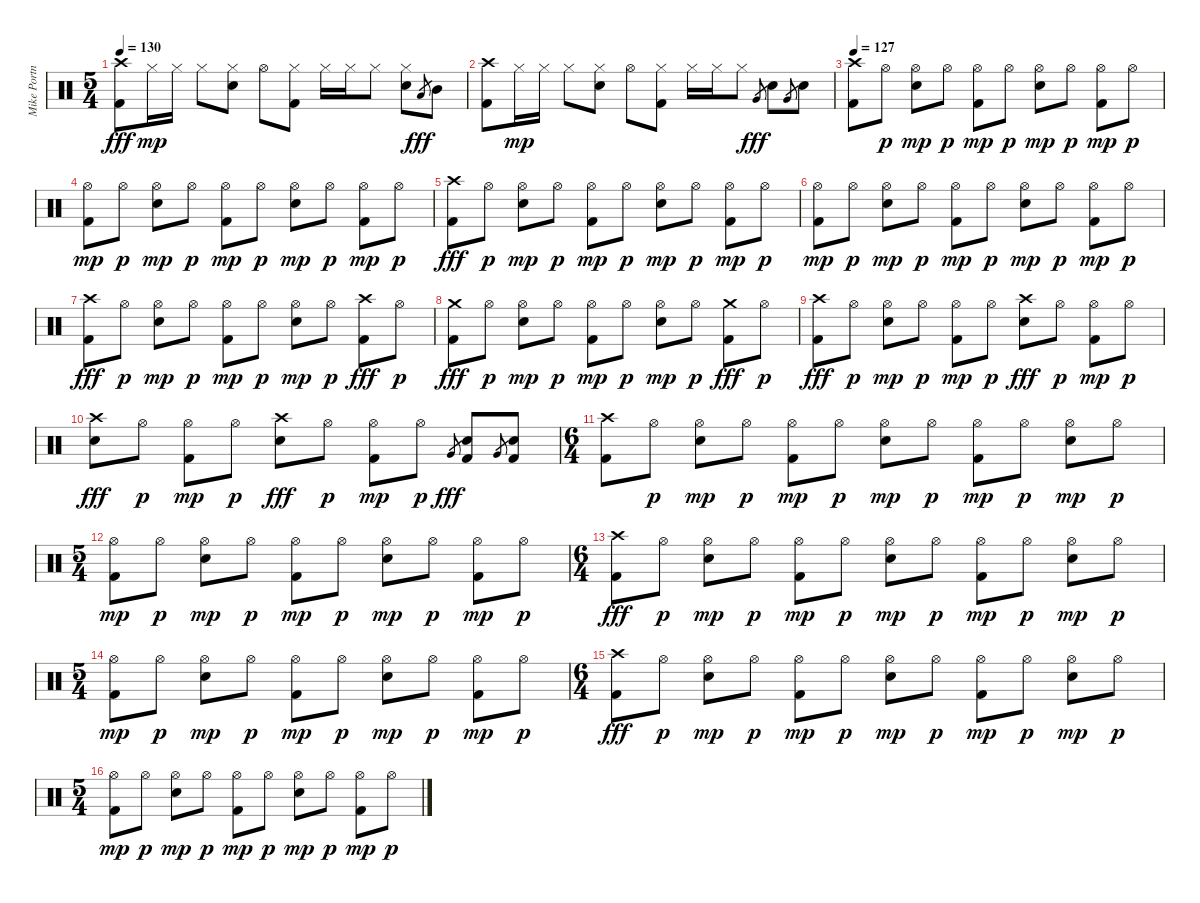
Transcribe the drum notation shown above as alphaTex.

\track ("Mike Portnoy" "Mike Portn") {instrument percussion}
\staff {score}
\articulation defaults
\ts (5 4)
\tempo 130
\clef neutral
\ks c
("Kick (hit) 2" "Crash high (hit)").8{dy fff} "Hi-Hat (closed)".16{dy mp} "Hi-Hat (closed)".16 "Hi-Hat (closed)".8 ("Electric Snare (hit)" "Hi-Hat (closed)").8 "Hi-Hat (open)".8 ("Kick (hit) 2" "Hi-Hat (closed)").8 "Hi-Hat (closed)".16 "Hi-Hat (closed)".16 "Hi-Hat (closed)".8 ("Electric Snare (hit)" "Hi-Hat (closed)").8 "Low Tom (hit)".8{gr dy fff} "Mid Tom (hit)".8 |
("Kick (hit) 2" "Crash high (hit)").8 "Hi-Hat (closed)".16{dy mp} "Hi-Hat (closed)".16 "Hi-Hat (closed)".8 ("Electric Snare (hit)" "Hi-Hat (closed)").8 "Hi-Hat (open)".8 ("Kick (hit) 2" "Hi-Hat (closed)").8 "Hi-Hat (closed)".16 "Hi-Hat (closed)".16 "Hi-Hat (closed)".8 "Very Low Tom (hit)".8{gr dy fff} "Electric Snare (hit)".8 "Very Low Tom (hit)".8{gr} "Electric Snare (hit)".8 |
\tempo 127
("Kick (hit) 2" "Crash high (hit)").8 "Hi-Hat (open)".8{dy p} ("Electric Snare (hit)" "Hi-Hat (open)").8{dy mp} "Hi-Hat (open)".8{dy p} ("Kick (hit) 2" "Hi-Hat (open)").8{dy mp} "Hi-Hat (open)".8{dy p} ("Electric Snare (hit)" "Hi-Hat (open)").8{dy mp} "Hi-Hat (open)".8{dy p} ("Kick (hit) 2" "Hi-Hat (open)").8{dy mp} "Hi-Hat (open)".8{dy p} |
("Kick (hit) 2" "Hi-Hat (open)").8{dy mp} "Hi-Hat (open)".8{dy p} ("Electric Snare (hit)" "Hi-Hat (open)").8{dy mp} "Hi-Hat (open)".8{dy p} ("Kick (hit) 2" "Hi-Hat (open)").8{dy mp} "Hi-Hat (open)".8{dy p} ("Electric Snare (hit)" "Hi-Hat (open)").8{dy mp} "Hi-Hat (open)".8{dy p} ("Kick (hit) 2" "Hi-Hat (open)").8{dy mp} "Hi-Hat (open)".8{dy p} |
("Kick (hit) 2" "Crash high (hit)").8{dy fff} "Hi-Hat (open)".8{dy p} ("Electric Snare (hit)" "Hi-Hat (open)").8{dy mp} "Hi-Hat (open)".8{dy p} ("Kick (hit) 2" "Hi-Hat (open)").8{dy mp} "Hi-Hat (open)".8{dy p} ("Electric Snare (hit)" "Hi-Hat (open)").8{dy mp} "Hi-Hat (open)".8{dy p} ("Kick (hit) 2" "Hi-Hat (open)").8{dy mp} "Hi-Hat (open)".8{dy p} |
("Kick (hit) 2" "Hi-Hat (open)").8{dy mp} "Hi-Hat (open)".8{dy p} ("Electric Snare (hit)" "Hi-Hat (open)").8{dy mp} "Hi-Hat (open)".8{dy p} ("Kick (hit) 2" "Hi-Hat (open)").8{dy mp} "Hi-Hat (open)".8{dy p} ("Electric Snare (hit)" "Hi-Hat (open)").8{dy mp} "Hi-Hat (open)".8{dy p} ("Kick (hit) 2" "Hi-Hat (open)").8{dy mp} "Hi-Hat (open)".8{dy p} |
("Kick (hit) 2" "Crash high (hit)").8{dy fff} "Hi-Hat (open)".8{dy p} ("Electric Snare (hit)" "Hi-Hat (open)").8{dy mp} "Hi-Hat (open)".8{dy p} ("Kick (hit) 2" "Hi-Hat (open)").8{dy mp} "Hi-Hat (open)".8{dy p} ("Electric Snare (hit)" "Hi-Hat (open)").8{dy mp} "Hi-Hat (open)".8{dy p} ("Kick (hit) 2" "Crash high (hit)").8{dy fff} "Hi-Hat (open)".8{dy p} |
("Kick (hit) 2" "Crash medium (hit)").8{dy fff} "Hi-Hat (open)".8{dy p} ("Electric Snare (hit)" "Hi-Hat (open)").8{dy mp} "Hi-Hat (open)".8{dy p} ("Kick (hit) 2" "Hi-Hat (open)").8{dy mp} "Hi-Hat (open)".8{dy p} ("Electric Snare (hit)" "Hi-Hat (open)").8{dy mp} "Hi-Hat (open)".8{dy p} ("Kick (hit) 2" "Crash medium (hit)").8{dy fff} "Hi-Hat (open)".8{dy p} |
("Kick (hit) 2" "Crash high (hit)").8{dy fff} "Hi-Hat (open)".8{dy p} ("Electric Snare (hit)" "Hi-Hat (open)").8{dy mp} "Hi-Hat (open)".8{dy p} ("Kick (hit) 2" "Hi-Hat (open)").8{dy mp} "Hi-Hat (open)".8{dy p} ("Electric Snare (hit)" "Crash high (hit)").8{dy fff} "Hi-Hat (open)".8{dy p} ("Kick (hit) 2" "Hi-Hat (open)").8{dy mp} "Hi-Hat (open)".8{dy p} |
("Electric Snare (hit)" "Crash high (hit)").8{dy fff} "Hi-Hat (open)".8{dy p} ("Kick (hit) 2" "Hi-Hat (open)").8{dy mp} "Hi-Hat (open)".8{dy p} ("Electric Snare (hit)" "Crash high (hit)").8{dy fff} "Hi-Hat (open)".8{dy p} ("Kick (hit) 2" "Hi-Hat (open)").8{dy mp} "Hi-Hat (open)".8{dy p} "Very Low Tom (hit)".8{gr dy fff} ("Electric Snare (hit)" "Kick (hit) 2").8 "Very Low Tom (hit)".8{gr} ("Electric Snare (hit)" "Kick (hit) 2").8 |
\ts (6 4)
("Kick (hit) 2" "Crash high (hit)").8 "Hi-Hat (open)".8{dy p} ("Electric Snare (hit)" "Hi-Hat (open)").8{dy mp} "Hi-Hat (open)".8{dy p} ("Kick (hit) 2" "Hi-Hat (open)").8{dy mp} "Hi-Hat (open)".8{dy p} ("Electric Snare (hit)" "Hi-Hat (open)").8{dy mp} "Hi-Hat (open)".8{dy p} ("Kick (hit) 2" "Hi-Hat (open)").8{dy mp} "Hi-Hat (open)".8{dy p} ("Electric Snare (hit)" "Hi-Hat (open)").8{dy mp} "Hi-Hat (open)".8{dy p} |
\ts (5 4)
("Kick (hit) 2" "Hi-Hat (open)").8{dy mp} "Hi-Hat (open)".8{dy p} ("Electric Snare (hit)" "Hi-Hat (open)").8{dy mp} "Hi-Hat (open)".8{dy p} ("Kick (hit) 2" "Hi-Hat (open)").8{dy mp} "Hi-Hat (open)".8{dy p} ("Electric Snare (hit)" "Hi-Hat (open)").8{dy mp} "Hi-Hat (open)".8{dy p} ("Kick (hit) 2" "Hi-Hat (open)").8{dy mp} "Hi-Hat (open)".8{dy p} |
\ts (6 4)
("Kick (hit) 2" "Crash high (hit)").8{dy fff} "Hi-Hat (open)".8{dy p} ("Electric Snare (hit)" "Hi-Hat (open)").8{dy mp} "Hi-Hat (open)".8{dy p} ("Kick (hit) 2" "Hi-Hat (open)").8{dy mp} "Hi-Hat (open)".8{dy p} ("Electric Snare (hit)" "Hi-Hat (open)").8{dy mp} "Hi-Hat (open)".8{dy p} ("Kick (hit) 2" "Hi-Hat (open)").8{dy mp} "Hi-Hat (open)".8{dy p} ("Electric Snare (hit)" "Hi-Hat (open)").8{dy mp} "Hi-Hat (open)".8{dy p} |
\ts (5 4)
("Kick (hit) 2" "Hi-Hat (open)").8{dy mp} "Hi-Hat (open)".8{dy p} ("Electric Snare (hit)" "Hi-Hat (open)").8{dy mp} "Hi-Hat (open)".8{dy p} ("Kick (hit) 2" "Hi-Hat (open)").8{dy mp} "Hi-Hat (open)".8{dy p} ("Electric Snare (hit)" "Hi-Hat (open)").8{dy mp} "Hi-Hat (open)".8{dy p} ("Kick (hit) 2" "Hi-Hat (open)").8{dy mp} "Hi-Hat (open)".8{dy p} |
\ts (6 4)
("Kick (hit) 2" "Crash high (hit)").8{dy fff} "Hi-Hat (open)".8{dy p} ("Electric Snare (hit)" "Hi-Hat (open)").8{dy mp} "Hi-Hat (open)".8{dy p} ("Kick (hit) 2" "Hi-Hat (open)").8{dy mp} "Hi-Hat (open)".8{dy p} ("Electric Snare (hit)" "Hi-Hat (open)").8{dy mp} "Hi-Hat (open)".8{dy p} ("Kick (hit) 2" "Hi-Hat (open)").8{dy mp} "Hi-Hat (open)".8{dy p} ("Electric Snare (hit)" "Hi-Hat (open)").8{dy mp} "Hi-Hat (open)".8{dy p} |
\ts (5 4)
("Kick (hit) 2" "Hi-Hat (open)").8{dy mp} "Hi-Hat (open)".8{dy p} ("Electric Snare (hit)" "Hi-Hat (open)").8{dy mp} "Hi-Hat (open)".8{dy p} ("Kick (hit) 2" "Hi-Hat (open)").8{dy mp} "Hi-Hat (open)".8{dy p} ("Electric Snare (hit)" "Hi-Hat (open)").8{dy mp} "Hi-Hat (open)".8{dy p} ("Kick (hit) 2" "Hi-Hat (open)").8{dy mp} "Hi-Hat (open)".8{dy p}
